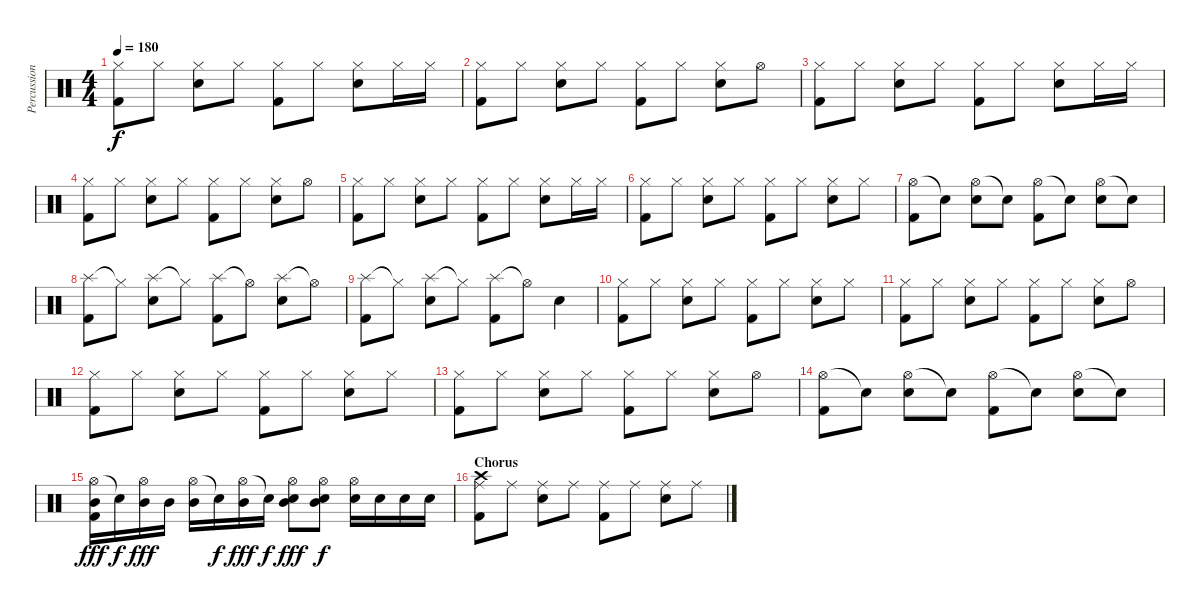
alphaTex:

\track ("Percussion" "Percussion") {instrument percussion}
\staff {score}
\articulation defaults
\ts (4 4)
\tempo 180
\clef neutral
\ks c
("Hi-Hat (closed)" "Kick (hit) 2").8{dy f} "Hi-Hat (closed)".8 ("Hi-Hat (closed)" "Electric Snare (hit)").8 "Hi-Hat (closed)".8 ("Hi-Hat (closed)" "Kick (hit) 2").8 "Hi-Hat (closed)".8 ("Hi-Hat (closed)" "Electric Snare (hit)").8 "Hi-Hat (closed)".16 "Hi-Hat (closed)".16 |
("Hi-Hat (closed)" "Kick (hit) 2").8 "Hi-Hat (closed)".8 ("Hi-Hat (closed)" "Electric Snare (hit)").8 "Hi-Hat (closed)".8 ("Hi-Hat (closed)" "Kick (hit) 2").8 "Hi-Hat (closed)".8 ("Hi-Hat (closed)" "Electric Snare (hit)").8 "Hi-Hat (open)".8 |
("Hi-Hat (closed)" "Kick (hit) 2").8 "Hi-Hat (closed)".8 ("Hi-Hat (closed)" "Electric Snare (hit)").8 "Hi-Hat (closed)".8 ("Hi-Hat (closed)" "Kick (hit) 2").8 "Hi-Hat (closed)".8 ("Hi-Hat (closed)" "Electric Snare (hit)").8 "Hi-Hat (closed)".16 "Hi-Hat (closed)".16 |
("Hi-Hat (closed)" "Kick (hit) 2").8 "Hi-Hat (closed)".8 ("Hi-Hat (closed)" "Electric Snare (hit)").8 "Hi-Hat (closed)".8 ("Hi-Hat (closed)" "Kick (hit) 2").8 "Hi-Hat (closed)".8 ("Hi-Hat (closed)" "Electric Snare (hit)").8 "Hi-Hat (open)".8 |
("Hi-Hat (closed)" "Kick (hit) 2").8 "Hi-Hat (closed)".8 ("Hi-Hat (closed)" "Electric Snare (hit)").8 "Hi-Hat (closed)".8 ("Hi-Hat (closed)" "Kick (hit) 2").8 "Hi-Hat (closed)".8 ("Hi-Hat (closed)" "Electric Snare (hit)").8 "Hi-Hat (closed)".16 "Hi-Hat (closed)".16 |
("Hi-Hat (closed)" "Kick (hit) 2").8 "Hi-Hat (closed)".8 ("Hi-Hat (closed)" "Electric Snare (hit)").8 "Hi-Hat (closed)".8 ("Hi-Hat (closed)" "Kick (hit) 2").8 "Hi-Hat (closed)".8 ("Hi-Hat (closed)" "Electric Snare (hit)").8 "Hi-Hat (closed)".8 |
("Hi-Hat (open)" "Kick (hit) 2").8 "Snare (hit)"{t}.8 ("Hi-Hat (open)" "Electric Snare (hit)").8 "Snare (hit)"{t}.8 ("Hi-Hat (open)" "Kick (hit) 2").8 "Snare (hit)"{t}.8 ("Hi-Hat (open)" "Electric Snare (hit)").8 "Snare (hit)"{t}.8 |
("Splash (hit)" "Kick (hit) 2").8 "Hi-Hat (closed)"{t}.8 ("Splash (hit)" "Electric Snare (hit)").8 "Hi-Hat (closed)"{t}.8 ("Splash (hit)" "Kick (hit) 2").8 "Hi-Hat (open)"{t}.8 ("Splash (hit)" "Electric Snare (hit)").8 "Hi-Hat (open)"{t}.8 |
("Splash (hit)" "Kick (hit) 2").8 "Hi-Hat (closed)"{t}.8 ("Splash (hit)" "Electric Snare (hit)").8 "Hi-Hat (closed)"{t}.8 ("Splash (hit)" "Kick (hit) 2").8 "Hi-Hat (open)"{t}.8 "Electric Snare (hit)".4 |
("Hi-Hat (closed)" "Kick (hit) 2").8 "Hi-Hat (closed)".8 ("Hi-Hat (closed)" "Electric Snare (hit)").8 "Hi-Hat (closed)".8 ("Hi-Hat (closed)" "Kick (hit) 2").8 "Hi-Hat (closed)".8 ("Hi-Hat (closed)" "Electric Snare (hit)").8 "Hi-Hat (closed)".8 |
("Hi-Hat (closed)" "Kick (hit) 2").8 "Hi-Hat (closed)".8 ("Hi-Hat (closed)" "Electric Snare (hit)").8 "Hi-Hat (closed)".8 ("Hi-Hat (closed)" "Kick (hit) 2").8 "Hi-Hat (closed)".8 ("Hi-Hat (closed)" "Electric Snare (hit)").8 "Hi-Hat (open)".8 |
("Hi-Hat (closed)" "Kick (hit) 2").8 "Hi-Hat (closed)".8 ("Hi-Hat (closed)" "Electric Snare (hit)").8 "Hi-Hat (closed)".8 ("Hi-Hat (closed)" "Kick (hit) 2").8 "Hi-Hat (closed)".8 ("Hi-Hat (closed)" "Electric Snare (hit)").8 "Hi-Hat (closed)".8 |
("Hi-Hat (closed)" "Kick (hit) 2").8 "Hi-Hat (closed)".8 ("Hi-Hat (closed)" "Electric Snare (hit)").8 "Hi-Hat (closed)".8 ("Hi-Hat (closed)" "Kick (hit) 2").8 "Hi-Hat (closed)".8 ("Hi-Hat (closed)" "Electric Snare (hit)").8 "Hi-Hat (open)".8 |
("Hi-Hat (open)" "Kick (hit) 2").8 "Snare (hit)"{t}.8 ("Hi-Hat (open)" "Electric Snare (hit)").8 "Snare (hit)"{t}.8 ("Hi-Hat (open)" "Kick (hit) 2").8 "Snare (hit)"{t}.8 ("Hi-Hat (open)" "Electric Snare (hit)").8 "Snare (hit)"{t}.8 |
("Hi-Hat (open)" "Mid Tom (hit)" "Kick (hit) 2").16{dy fff} "Electric Snare (hit)"{t}.16{dy f} ("Hi-Hat (open)" "Mid Tom (hit)").16{dy fff} "Mid Tom (hit)".16 ("Hi-Hat (open)" "Mid Tom (hit)").16 "Snare (hit)"{t}.16{dy f} ("Hi-Hat (open)" "Mid Tom (hit)").16{dy fff} "Snare (hit)"{t}.16{dy f} ("Hi-Hat (open)" "Electric Snare (hit)" "Mid Tom (hit)").8{dy fff} ("Hi-Hat (open)" "Electric Snare (hit)" "Mid Tom (hit)").8{dy f} ("Hi-Hat (open)" "Electric Snare (hit)").16 "Electric Snare (hit)".16 "Electric Snare (hit)".16 "Electric Snare (hit)".16 |
\section ("" "Chorus")
("Crash high (hit)" "Ride (middle)" "Kick (hit) 2").8 "Ride (middle)".8 ("Ride (middle)" "Electric Snare (hit)").8 "Ride (middle)".8 ("Ride (middle)" "Kick (hit) 2").8 "Ride (middle)".8 ("Ride (middle)" "Electric Snare (hit)").8 "Ride (middle)".8
